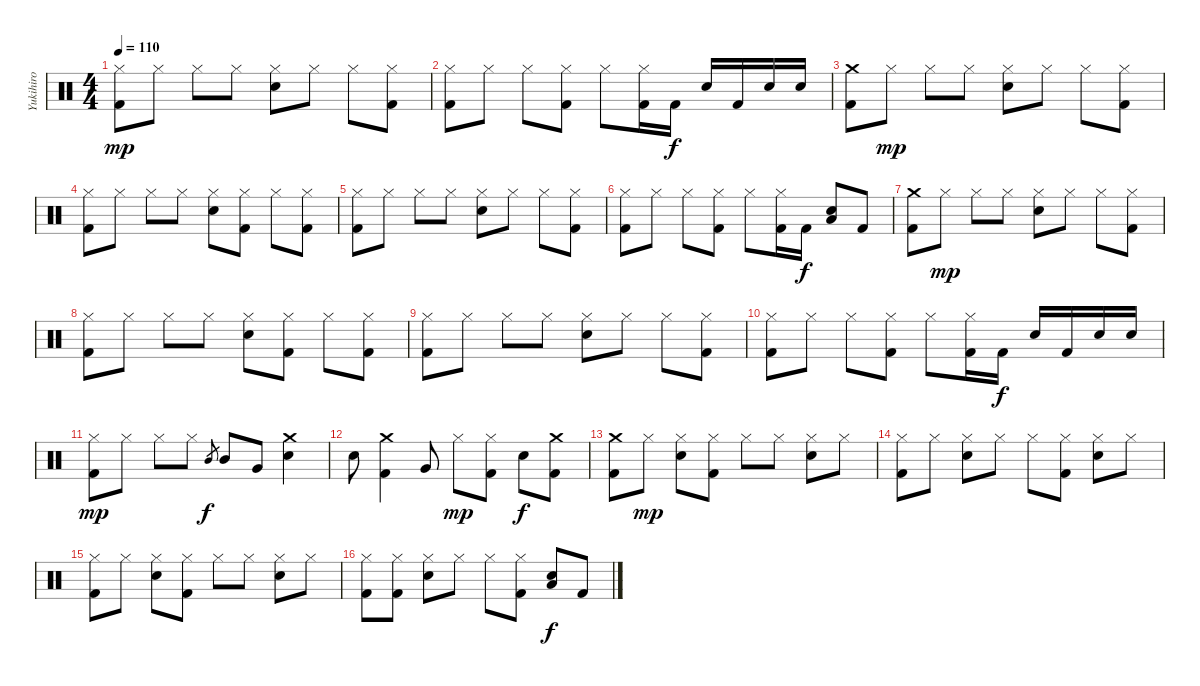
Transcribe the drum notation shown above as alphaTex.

\track ("Yukihiro " "Yukihiro ") {instrument percussion}
\staff {score}
\articulation defaults
\ts (4 4)
\tempo 110
\clef neutral
\ks c
("Hi-Hat (closed)" "Kick (hit) 2").8{dy mp} "Hi-Hat (closed)".8 "Hi-Hat (closed)".8 "Hi-Hat (closed)".8 ("Hi-Hat (closed)" "Electric Snare (hit)").8 "Hi-Hat (closed)".8 "Hi-Hat (closed)".8 ("Hi-Hat (closed)" "Kick (hit) 2").8 |
("Hi-Hat (closed)" "Kick (hit) 2").8 "Hi-Hat (closed)".8 "Hi-Hat (closed)".8 ("Hi-Hat (closed)" "Kick (hit) 2").8 "Hi-Hat (closed)".8 ("Hi-Hat (closed)" "Kick (hit) 2").16 "Kick (hit) 2".16{dy f} "Electric Snare (hit)".16 "Kick (hit) 2".16 "Electric Snare (hit)".16 "Electric Snare (hit)".16 |
("Crash medium (hit)" "Kick (hit) 2").8 "Hi-Hat (closed)".8{dy mp} "Hi-Hat (closed)".8 "Hi-Hat (closed)".8 ("Hi-Hat (closed)" "Electric Snare (hit)").8 "Hi-Hat (closed)".8 "Hi-Hat (closed)".8 ("Hi-Hat (closed)" "Kick (hit) 2").8 |
("Hi-Hat (closed)" "Kick (hit) 2").8 "Hi-Hat (closed)".8 "Hi-Hat (closed)".8 "Hi-Hat (closed)".8 ("Hi-Hat (closed)" "Electric Snare (hit)").8 ("Hi-Hat (closed)" "Kick (hit) 2").8 "Hi-Hat (closed)".8 ("Hi-Hat (closed)" "Kick (hit) 2").8 |
("Hi-Hat (closed)" "Kick (hit) 2").8 "Hi-Hat (closed)".8 "Hi-Hat (closed)".8 "Hi-Hat (closed)".8 ("Hi-Hat (closed)" "Electric Snare (hit)").8 "Hi-Hat (closed)".8 "Hi-Hat (closed)".8 ("Hi-Hat (closed)" "Kick (hit) 2").8 |
("Hi-Hat (closed)" "Kick (hit) 2").8 "Hi-Hat (closed)".8 "Hi-Hat (closed)".8 ("Hi-Hat (closed)" "Kick (hit) 2").8 "Hi-Hat (closed)".8 ("Hi-Hat (closed)" "Kick (hit) 2").16 "Kick (hit) 2".16{dy f} ("Electric Snare (hit)" "Low Floor Tom (hit)").8 "Kick (hit) 2".8 |
("Crash medium (hit)" "Kick (hit) 2").8 "Hi-Hat (closed)".8{dy mp} "Hi-Hat (closed)".8 "Hi-Hat (closed)".8 ("Hi-Hat (closed)" "Electric Snare (hit)").8 "Hi-Hat (closed)".8 "Hi-Hat (closed)".8 ("Hi-Hat (closed)" "Kick (hit) 2").8 |
("Hi-Hat (closed)" "Kick (hit) 2").8 "Hi-Hat (closed)".8 "Hi-Hat (closed)".8 "Hi-Hat (closed)".8 ("Hi-Hat (closed)" "Electric Snare (hit)").8 ("Hi-Hat (closed)" "Kick (hit) 2").8 "Hi-Hat (closed)".8 ("Hi-Hat (closed)" "Kick (hit) 2").8 |
("Hi-Hat (closed)" "Kick (hit) 2").8 "Hi-Hat (closed)".8 "Hi-Hat (closed)".8 "Hi-Hat (closed)".8 ("Hi-Hat (closed)" "Electric Snare (hit)").8 "Hi-Hat (closed)".8 "Hi-Hat (closed)".8 ("Hi-Hat (closed)" "Kick (hit) 2").8 |
("Hi-Hat (closed)" "Kick (hit) 2").8 "Hi-Hat (closed)".8 "Hi-Hat (closed)".8 ("Hi-Hat (closed)" "Kick (hit) 2").8 "Hi-Hat (closed)".8 ("Hi-Hat (closed)" "Kick (hit) 2").16 "Kick (hit) 2".16{dy f} "Electric Snare (hit)".16 "Kick (hit) 2".16 "Electric Snare (hit)".16 "Electric Snare (hit)".16 |
("Hi-Hat (closed)" "Kick (hit) 2").8{dy mp} "Hi-Hat (closed)".8 "Hi-Hat (closed)".8 "Hi-Hat (closed)".8 "Mid Tom (hit)".8{gr dy f} "Mid Tom (hit)".8 "Very Low Tom (hit)".8 ("Crash medium (hit)" "Electric Snare (hit)").4 |
"Electric Snare (hit)".8 ("Crash medium (hit)" "Kick (hit) 2").4 "Very Low Tom (hit)".8 "Hi-Hat (closed)".8{dy mp} ("Hi-Hat (closed)" "Kick (hit) 2").8 "Electric Snare (hit)".8{dy f} ("Crash medium (hit)" "Kick (hit) 2").8 |
("Crash medium (hit)" "Kick (hit) 2").8 "Hi-Hat (closed)".8{dy mp} ("Hi-Hat (closed)" "Electric Snare (hit)").8 ("Hi-Hat (closed)" "Kick (hit) 2").8 "Hi-Hat (closed)".8 "Hi-Hat (closed)".8 ("Hi-Hat (closed)" "Electric Snare (hit)").8 "Hi-Hat (closed)".8 |
("Hi-Hat (closed)" "Kick (hit) 2").8 "Hi-Hat (closed)".8 ("Hi-Hat (closed)" "Electric Snare (hit)").8 "Hi-Hat (closed)".8 "Hi-Hat (closed)".8 ("Hi-Hat (closed)" "Kick (hit) 2").8 ("Hi-Hat (closed)" "Electric Snare (hit)").8 "Hi-Hat (closed)".8 |
("Hi-Hat (closed)" "Kick (hit) 2").8 "Hi-Hat (closed)".8 ("Hi-Hat (closed)" "Electric Snare (hit)").8 ("Hi-Hat (closed)" "Kick (hit) 2").8 "Hi-Hat (closed)".8 "Hi-Hat (closed)".8 ("Hi-Hat (closed)" "Electric Snare (hit)").8 "Hi-Hat (closed)".8 |
("Hi-Hat (closed)" "Kick (hit) 2").8 ("Hi-Hat (closed)" "Kick (hit) 2").8 ("Hi-Hat (closed)" "Electric Snare (hit)").8 "Hi-Hat (closed)".8 "Hi-Hat (closed)".8 ("Hi-Hat (closed)" "Kick (hit) 2").8 ("Electric Snare (hit)" "Low Floor Tom (hit)").8{dy f} "Kick (hit) 2".8
